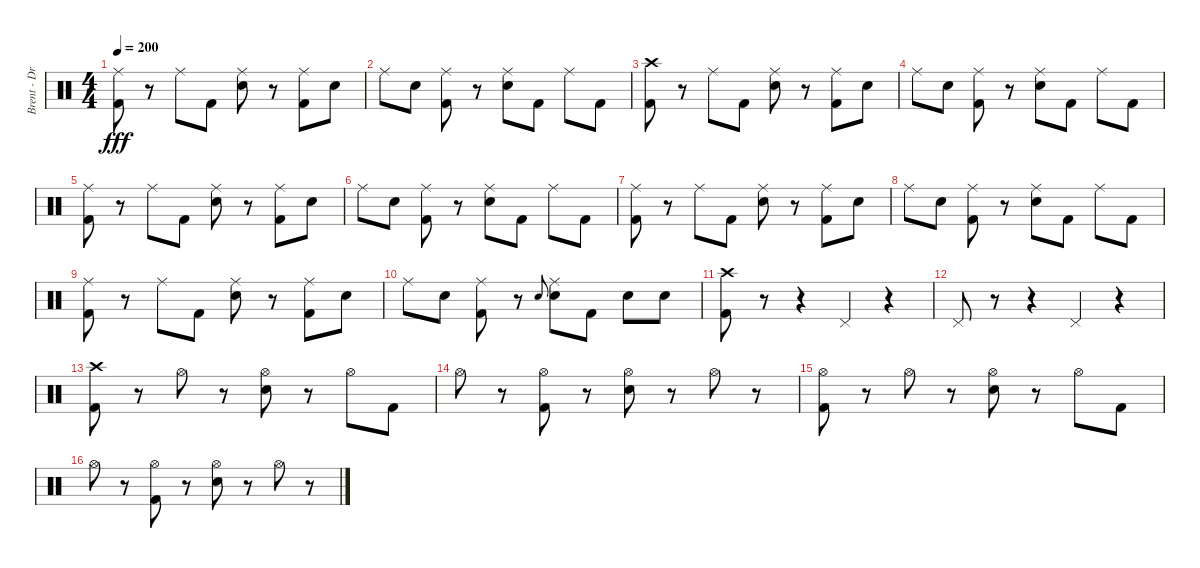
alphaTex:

\track ("Brent - Drums" "Brent - Dr") {instrument percussion}
\staff {score}
\articulation defaults
\ts (4 4)
\tempo 200
\clef neutral
\ks c
("Ride (middle)" "Kick (hit) 2").8{dy fff} r.8 "Ride (middle)".8 "Kick (hit) 2".8 ("Ride (middle)" "Snare (hit) 2").8 r.8 ("Ride (middle)" "Kick (hit) 2").8 "Snare (hit) 2".8 |
"Ride (middle)".8 "Snare (hit) 2".8 ("Ride (middle)" "Kick (hit) 2").8 r.8 ("Ride (middle)" "Snare (hit) 2").8 "Kick (hit) 2".8 "Ride (middle)".8 "Kick (hit) 2".8 |
("Crash high (hit)" "Kick (hit) 2").8 r.8 "Ride (middle)".8 "Kick (hit) 2".8 ("Ride (middle)" "Snare (hit) 2").8 r.8 ("Ride (middle)" "Kick (hit) 2").8 "Snare (hit) 2".8 |
"Ride (middle)".8 "Snare (hit) 2".8 ("Ride (middle)" "Kick (hit) 2").8 r.8 ("Ride (middle)" "Snare (hit) 2").8 "Kick (hit) 2".8 "Ride (middle)".8 "Kick (hit) 2".8 |
("Ride (middle)" "Kick (hit) 2").8 r.8 "Ride (middle)".8 "Kick (hit) 2".8 ("Ride (middle)" "Snare (hit) 2").8 r.8 ("Ride (middle)" "Kick (hit) 2").8 "Snare (hit) 2".8 |
"Ride (middle)".8 "Snare (hit) 2".8 ("Ride (middle)" "Kick (hit) 2").8 r.8 ("Ride (middle)" "Snare (hit) 2").8 "Kick (hit) 2".8 "Ride (middle)".8 "Kick (hit) 2".8 |
("Ride (middle)" "Kick (hit) 2").8 r.8 "Ride (middle)".8 "Kick (hit) 2".8 ("Ride (middle)" "Snare (hit) 2").8 r.8 ("Ride (middle)" "Kick (hit) 2").8 "Snare (hit) 2".8 |
"Ride (middle)".8 "Snare (hit) 2".8 ("Ride (middle)" "Kick (hit) 2").8 r.8 ("Ride (middle)" "Snare (hit) 2").8 "Kick (hit) 2".8 "Ride (middle)".8 "Kick (hit) 2".8 |
("Ride (middle)" "Kick (hit) 2").8 r.8 "Ride (middle)".8 "Kick (hit) 2".8 ("Ride (middle)" "Snare (hit) 2").8 r.8 ("Ride (middle)" "Kick (hit) 2").8 "Snare (hit) 2".8 |
"Ride (middle)".8 "Snare (hit) 2".8 ("Ride (middle)" "Kick (hit) 2").8 r.8 "Snare (hit) 2".8{gr onbeat} ("Ride (middle)" "Snare (hit) 2").8 "Kick (hit) 2".8 "Snare (hit) 2".8 "Snare (hit) 2".8 |
("Crash high (hit)" "Kick (hit) 2").8 r.8 r.4 "Pedal Hi-Hat (hit)".4 r.4 |
"Pedal Hi-Hat (hit)".8 r.8 r.4 "Pedal Hi-Hat (hit)".4 r.4 |
("Crash high (hit)" "Kick (hit) 2").8 r.8 "Hi-Hat (open)".8 r.8 ("Hi-Hat (open)" "Snare (hit) 2").8 r.8 "Hi-Hat (open)".8 "Kick (hit) 2".8 |
"Hi-Hat (open)".8 r.8 ("Hi-Hat (open)" "Kick (hit) 2").8 r.8 ("Hi-Hat (open)" "Snare (hit) 2").8 r.8 "Hi-Hat (open)".8 r.8 |
("Hi-Hat (open)" "Kick (hit) 2").8 r.8 "Hi-Hat (open)".8 r.8 ("Hi-Hat (open)" "Snare (hit) 2").8 r.8 "Hi-Hat (open)".8 "Kick (hit) 2".8 |
"Hi-Hat (open)".8 r.8 ("Hi-Hat (open)" "Kick (hit) 2").8 r.8 ("Hi-Hat (open)" "Snare (hit) 2").8 r.8 "Hi-Hat (open)".8 r.8
